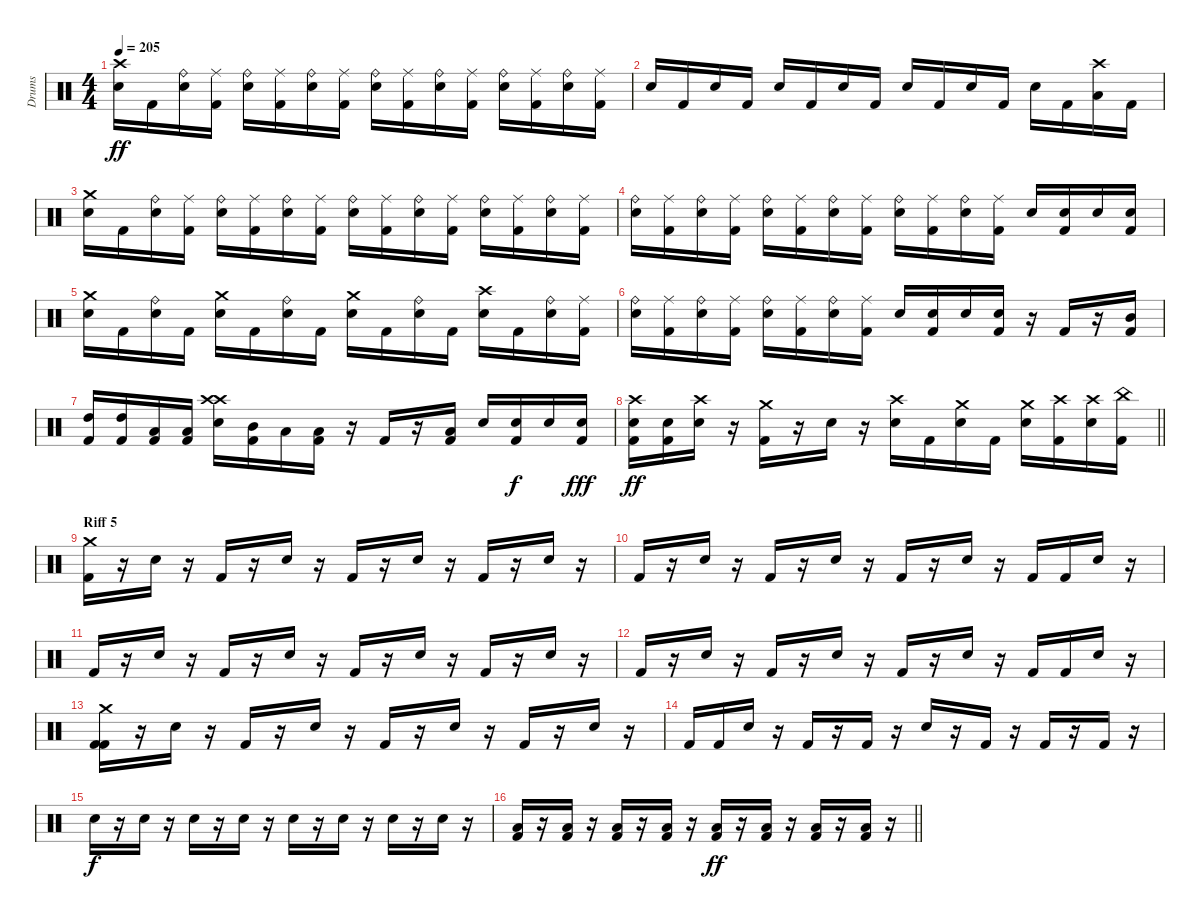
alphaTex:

\track ("Drums" "Drums") {instrument percussion}
\staff {score}
\articulation defaults
\ts (4 4)
\tempo 205
\clef neutral
\ks c
("Snare (hit) 2" "Crash high (hit)").16{dy ff} "Kick (hit) 2".16 ("Snare (hit) 2" "Ride (bell)").16 ("Kick (hit) 2" "Ride (middle)").16 ("Snare (hit) 2" "Ride (bell)").16 ("Kick (hit) 2" "Ride (middle)").16 ("Snare (hit) 2" "Ride (bell)").16 ("Kick (hit) 2" "Ride (middle)").16 ("Snare (hit) 2" "Ride (bell)").16 ("Kick (hit) 2" "Ride (middle)").16 ("Snare (hit) 2" "Ride (bell)").16 ("Kick (hit) 2" "Ride (middle)").16 ("Snare (hit) 2" "Ride (bell)").16 ("Kick (hit) 2" "Ride (middle)").16 ("Snare (hit) 2" "Ride (bell)").16 ("Kick (hit) 2" "Ride (middle)").16 |
"Snare (hit) 2".16 "Kick (hit) 2".16 "Snare (hit) 2".16 "Kick (hit) 2".16 "Snare (hit) 2".16 "Kick (hit) 2".16 "Snare (hit) 2".16 "Kick (hit) 2".16 "Snare (hit) 2".16 "Kick (hit) 2".16 "Snare (hit) 2".16 "Kick (hit) 2".16 "Snare (hit) 2".16 "Kick (hit) 2".16 ("Low Tom (hit)" "Crash high (hit)").16 "Kick (hit) 2".16 |
("Crash medium (hit)" "Snare (hit) 2").16 "Kick (hit) 2".16 ("Snare (hit) 2" "Ride (bell)").16 ("Kick (hit) 2" "Ride (middle)").16 ("Snare (hit) 2" "Ride (bell)").16 ("Kick (hit) 2" "Ride (middle)").16 ("Snare (hit) 2" "Ride (bell)").16 ("Kick (hit) 2" "Ride (middle)").16 ("Snare (hit) 2" "Ride (bell)").16 ("Kick (hit) 2" "Ride (middle)").16 ("Snare (hit) 2" "Ride (bell)").16 ("Kick (hit) 2" "Ride (middle)").16 ("Snare (hit) 2" "Ride (bell)").16 ("Kick (hit) 2" "Ride (middle)").16 ("Snare (hit) 2" "Ride (bell)").16 ("Kick (hit) 2" "Ride (middle)").16 |
("Snare (hit) 2" "Ride (bell)").16 ("Kick (hit) 2" "Ride (middle)").16 ("Snare (hit) 2" "Ride (bell)").16 ("Kick (hit) 2" "Ride (middle)").16 ("Snare (hit) 2" "Ride (bell)").16 ("Kick (hit) 2" "Ride (middle)").16 ("Snare (hit) 2" "Ride (bell)").16 ("Kick (hit) 2" "Ride (middle)").16 ("Snare (hit) 2" "Ride (bell)").16 ("Kick (hit) 2" "Ride (middle)").16 ("Snare (hit) 2" "Ride (bell)").16 ("Kick (hit) 2" "Ride (middle)").16 "Snare (hit) 2".16 ("Kick (hit) 2" "Snare (hit) 2").16 "Snare (hit) 2".16 ("Kick (hit) 2" "Snare (hit) 2").16 |
("Crash medium (hit)" "Snare (hit) 2").16 "Kick (hit) 2".16 ("Snare (hit) 2" "Ride (bell)").16 "Kick (hit) 2".16 ("Crash medium (hit)" "Snare (hit) 2").16 "Kick (hit) 2".16 ("Snare (hit) 2" "Ride (bell)").16 "Kick (hit) 2".16 ("Crash medium (hit)" "Snare (hit) 2").16 "Kick (hit) 2".16 ("Snare (hit) 2" "Ride (bell)").16 "Kick (hit) 2".16 ("Crash high (hit)" "Snare (hit) 2").16 "Kick (hit) 2".16 ("Snare (hit) 2" "Ride (bell)").16 ("Kick (hit) 2" "Ride (middle)").16 |
("Snare (hit) 2" "Ride (bell)").16 ("Kick (hit) 2" "Ride (middle)").16 ("Snare (hit) 2" "Ride (bell)").16 ("Kick (hit) 2" "Ride (middle)").16 ("Snare (hit) 2" "Ride (bell)").16 ("Kick (hit) 2" "Ride (middle)").16 ("Snare (hit) 2" "Ride (bell)").16 ("Kick (hit) 2" "Ride (middle)").16 "Snare (hit) 2".16 ("Kick (hit) 2" "Snare (hit) 2").16 "Snare (hit) 2".16 ("Kick (hit) 2" "Snare (hit) 2").16 r.16 "Kick (hit) 2".16 r.16 ("Kick (hit) 2" "Mid Tom (hit)").16 |
("Kick (hit) 2" "High Tom (hit)").16 ("Kick (hit) 2" "High Tom (hit)").16 ("Kick (hit) 2" "Low Tom (hit)").16 ("Kick (hit) 2" "Low Tom (hit)").16 ("Crash high (hit)" "Crash high (hit)" "Snare (hit) 2").16 ("Kick (hit) 2" "Mid Tom (hit)").16 "Low Tom (hit)".16 ("Kick (hit) 2" "Low Tom (hit)").16 r.16 "Kick (hit) 2".16 r.16 ("Kick (hit) 2" "Low Tom (hit)").16 "Snare (hit) 2".16 ("Kick (hit) 2" "Snare (hit) 2").16{dy f} "Snare (hit) 2".16 ("Kick (hit) 2" "Snare (hit) 2").16{dy fff} |
\barLineRight lightlight
("Crash high (hit)" "Kick (hit) 2" "Snare (hit) 2").16{dy ff} ("Kick (hit) 2" "Snare (hit) 2").16 ("Crash high (hit)" "Snare (hit) 2").16 r.16 ("Crash medium (hit)" "Kick (hit) 2").16 r.16 "Snare (hit) 2".16 r.16 ("Crash high (hit)" "Snare (hit) 2").16 "Kick (hit) 2".16 ("Crash medium (hit)" "Snare (hit) 2").16 "Kick (hit) 2".16 ("Crash medium (hit)" "Snare (hit) 2").16 ("Crash high (hit)" "Kick (hit) 2").16 ("Crash high (hit)" "Snare (hit) 2").16 ("China (hit)" "Kick (hit) 2").16 |
\section ("" "Riff 5")
("Crash medium (hit)" "Kick (hit) 2").16 r.16 "Snare (hit) 2".16 r.16 "Kick (hit) 2".16 r.16 "Snare (hit) 2".16 r.16 "Kick (hit) 2".16 r.16 "Snare (hit) 2".16 r.16 "Kick (hit) 2".16 r.16 "Snare (hit) 2".16 r.16 |
"Kick (hit) 2".16 r.16 "Snare (hit) 2".16 r.16 "Kick (hit) 2".16 r.16 "Snare (hit) 2".16 r.16 "Kick (hit) 2".16 r.16 "Snare (hit) 2".16 r.16 "Kick (hit) 2".16 "Kick (hit) 2".16 "Snare (hit) 2".16 r.16 |
"Kick (hit) 2".16 r.16 "Snare (hit) 2".16 r.16 "Kick (hit) 2".16 r.16 "Snare (hit) 2".16 r.16 "Kick (hit) 2".16 r.16 "Snare (hit) 2".16 r.16 "Kick (hit) 2".16 r.16 "Snare (hit) 2".16 r.16 |
"Kick (hit) 2".16 r.16 "Snare (hit) 2".16 r.16 "Kick (hit) 2".16 r.16 "Snare (hit) 2".16 r.16 "Kick (hit) 2".16 r.16 "Snare (hit) 2".16 r.16 "Kick (hit) 2".16 "Kick (hit) 2".16 "Snare (hit) 2".16 r.16 |
("Kick (hit) 2" "Crash medium (hit)" "Kick (hit) 2").16 r.16 "Snare (hit) 2".16 r.16 "Kick (hit) 2".16 r.16 "Snare (hit) 2".16 r.16 "Kick (hit) 2".16 r.16 "Snare (hit) 2".16 r.16 "Kick (hit) 2".16 r.16 "Snare (hit) 2".16 r.16 |
"Kick (hit) 2".16 "Kick (hit) 2".16 "Snare (hit) 2".16 r.16 "Kick (hit) 2".16 r.16 "Kick (hit) 2".16 r.16 "Snare (hit) 2".16 r.16 "Kick (hit) 2".16 r.16 "Kick (hit) 2".16 r.16 "Kick (hit) 2".16 r.16 |
"Snare (hit) 2".16{dy f} r.16 "Snare (hit) 2".16 r.16 "Snare (hit) 2".16 r.16 "Snare (hit) 2".16 r.16 "Snare (hit) 2".16 r.16 "Snare (hit) 2".16 r.16 "Snare (hit) 2".16 r.16 "Snare (hit) 2".16 r.16 |
\barLineRight lightlight
("Kick (hit) 2" "Low Tom (hit)").16 r.16 ("Kick (hit) 2" "Low Tom (hit)").16 r.16 ("Kick (hit) 2" "Low Tom (hit)").16 r.16 ("Kick (hit) 2" "Low Tom (hit)").16 r.16 ("Kick (hit) 2" "Low Tom (hit)").16{dy ff} r.16 ("Kick (hit) 2" "Low Tom (hit)").16 r.16 ("Kick (hit) 2" "Low Tom (hit)").16 r.16 ("Kick (hit) 2" "Low Tom (hit)").16 r.16
